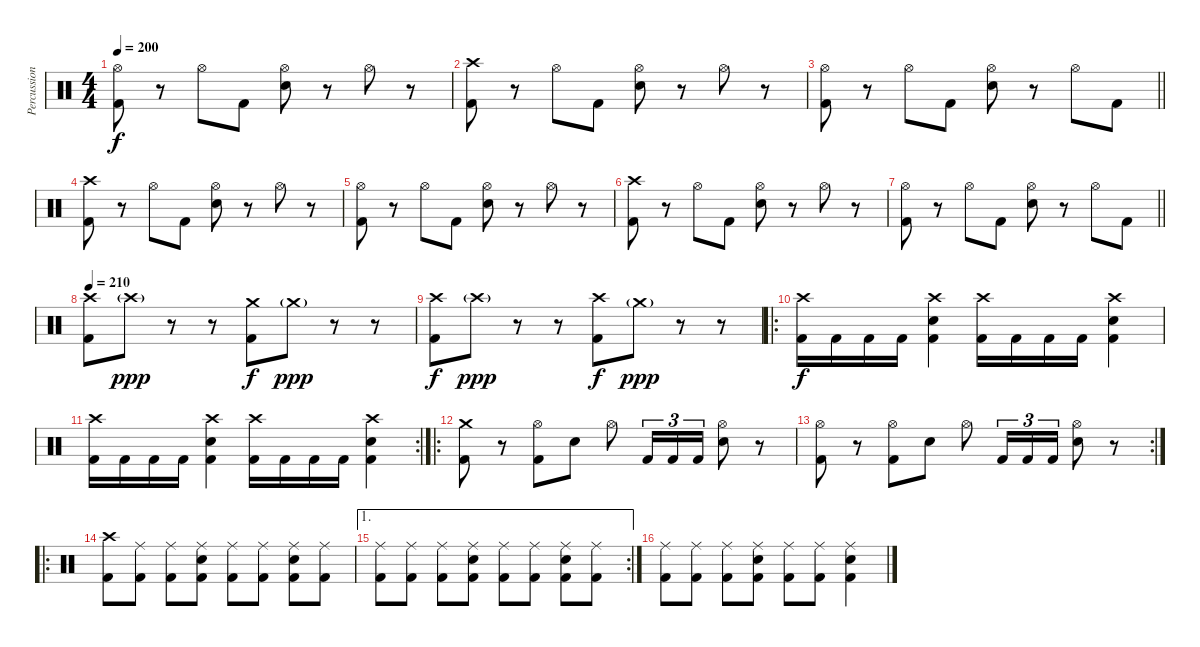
\track ("Percussion" "Percussion") {instrument percussion}
\staff {score}
\articulation defaults
\ts (4 4)
\tempo 200
\clef neutral
\ks c
("Hi-Hat (open)" "Kick (hit) 2").8{dy f} r.8 "Hi-Hat (open)".8 "Kick (hit) 2".8 ("Hi-Hat (open)" "Snare (hit) 2").8 r.8 "Hi-Hat (open)".8 r.8 |
("Crash high (hit)" "Kick (hit) 2").8 r.8 "Hi-Hat (open)".8 "Kick (hit) 2".8 ("Hi-Hat (open)" "Snare (hit) 2").8 r.8 "Hi-Hat (open)".8 r.8 |
\barLineRight lightlight
("Hi-Hat (open)" "Kick (hit) 2").8 r.8 "Hi-Hat (open)".8 "Kick (hit) 2".8 ("Hi-Hat (open)" "Snare (hit) 2").8 r.8 "Hi-Hat (open)".8 "Kick (hit) 2".8 |
("Crash high (hit)" "Kick (hit) 2").8 r.8 "Hi-Hat (open)".8 "Kick (hit) 2".8 ("Hi-Hat (open)" "Snare (hit) 2").8 r.8 "Hi-Hat (open)".8 r.8 |
("Hi-Hat (open)" "Kick (hit) 2").8 r.8 "Hi-Hat (open)".8 "Kick (hit) 2".8 ("Hi-Hat (open)" "Snare (hit) 2").8 r.8 "Hi-Hat (open)".8 r.8 |
("Crash high (hit)" "Kick (hit) 2").8 r.8 "Hi-Hat (open)".8 "Kick (hit) 2".8 ("Hi-Hat (open)" "Snare (hit) 2").8 r.8 "Hi-Hat (open)".8 r.8 |
\barLineRight lightlight
("Hi-Hat (open)" "Kick (hit) 2").8 r.8 "Hi-Hat (open)".8 "Kick (hit) 2".8 ("Hi-Hat (open)" "Snare (hit) 2").8 r.8 "Hi-Hat (open)".8 "Kick (hit) 2".8 |
\tempo 210
("Crash high (hit)" "Kick (hit) 2").8 "Crash high (hit)"{g}.8{dy ppp} r.8 r.8 ("Crash medium (hit)" "Kick (hit) 2").8{dy f} "Crash medium (hit)"{g}.8{dy ppp} r.8 r.8 |
("Crash high (hit)" "Kick (hit) 2").8{dy f} "Crash high (hit)"{g}.8{dy ppp} r.8 r.8 ("Crash high (hit)" "Kick (hit) 2").8{dy f} "Crash medium (hit)"{g}.8{dy ppp} r.8 r.8 |
\ro
("Crash high (hit)" "Kick (hit) 2").16{dy f} "Kick (hit) 2".16 "Kick (hit) 2".16 "Kick (hit) 2".16 ("Crash high (hit)" "Snare (hit) 2" "Kick (hit) 2").4 ("Crash high (hit)" "Kick (hit) 2").16 "Kick (hit) 2".16 "Kick (hit) 2".16 "Kick (hit) 2".16 ("Crash high (hit)" "Snare (hit) 2" "Kick (hit) 2").4 |
\rc 2
("Crash high (hit)" "Kick (hit) 2").16 "Kick (hit) 2".16 "Kick (hit) 2".16 "Kick (hit) 2".16 ("Crash high (hit)" "Snare (hit) 2" "Kick (hit) 2").4 ("Crash high (hit)" "Kick (hit) 2").16 "Kick (hit) 2".16 "Kick (hit) 2".16 "Kick (hit) 2".16 ("Crash high (hit)" "Snare (hit) 2" "Kick (hit) 2").4 |
\ro
("Crash medium (hit)" "Kick (hit) 2").8 r.8 ("Hi-Hat (open)" "Kick (hit) 2").8 "Snare (hit) 2".8 "Hi-Hat (open)".8 "Kick (hit) 2".16{tu (3 2)} "Kick (hit) 2".16{tu (3 2)} "Kick (hit) 2".16{tu (3 2)} ("Hi-Hat (open)" "Snare (hit) 2").8 r.8 |
\rc 2
("Hi-Hat (open)" "Kick (hit) 2").8 r.8 ("Hi-Hat (open)" "Kick (hit) 2").8 "Snare (hit) 2".8 "Hi-Hat (open)".8 "Kick (hit) 2".16{tu (3 2)} "Kick (hit) 2".16{tu (3 2)} "Kick (hit) 2".16{tu (3 2)} ("Hi-Hat (open)" "Snare (hit) 2").8 r.8 |
\ro
("Crash high (hit)" "Kick (hit) 2").8 ("Ride (middle)" "Kick (hit) 2").8 ("Ride (middle)" "Kick (hit) 2").8 ("Ride (middle)" "Snare (hit) 2" "Kick (hit) 2").8 ("Ride (middle)" "Kick (hit) 2").8 ("Ride (middle)" "Kick (hit) 2").8 ("Ride (middle)" "Snare (hit) 2" "Kick (hit) 2").8 ("Ride (middle)" "Kick (hit) 2").8 |
\ae 1
\rc 2
("Ride (middle)" "Kick (hit) 2").8 ("Ride (middle)" "Kick (hit) 2").8 ("Ride (middle)" "Kick (hit) 2").8 ("Ride (middle)" "Snare (hit) 2" "Kick (hit) 2").8 ("Ride (middle)" "Kick (hit) 2").8 ("Ride (middle)" "Kick (hit) 2").8 ("Ride (middle)" "Snare (hit) 2" "Kick (hit) 2").8 ("Ride (middle)" "Kick (hit) 2").8 |
("Ride (middle)" "Kick (hit) 2").8 ("Ride (middle)" "Kick (hit) 2").8 ("Ride (middle)" "Kick (hit) 2").8 ("Ride (middle)" "Snare (hit) 2" "Kick (hit) 2").8 ("Ride (middle)" "Kick (hit) 2").8 ("Ride (middle)" "Kick (hit) 2").8 ("Ride (middle)" "Snare (hit) 2" "Kick (hit) 2").4
